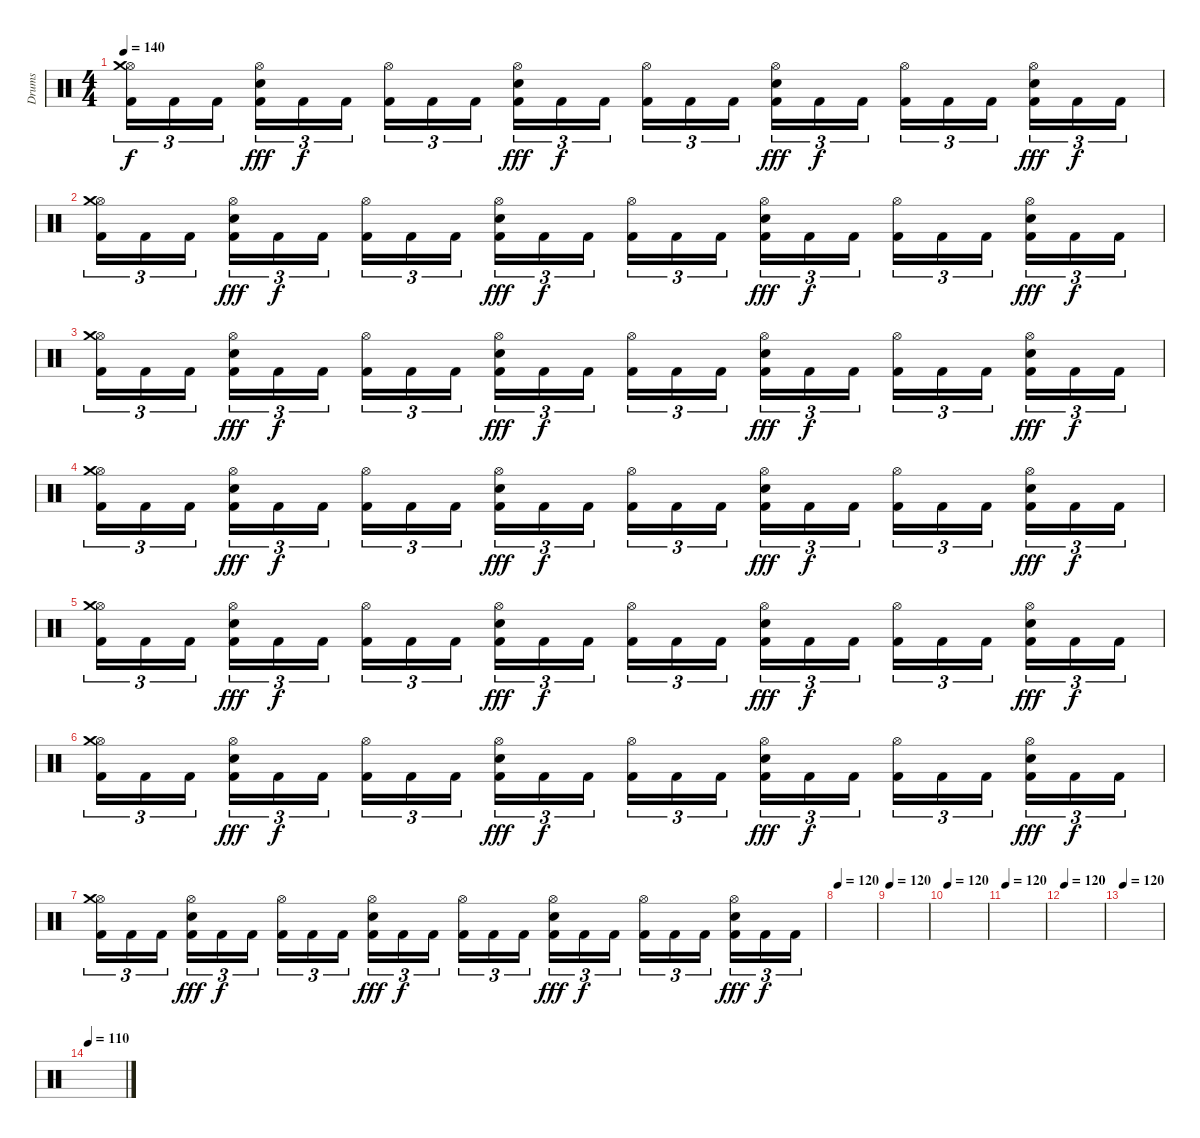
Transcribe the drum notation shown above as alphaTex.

\track ("Drums" "Drums") {instrument percussion}
\staff {score}
\articulation defaults
\ts (4 4)
\tempo 140
\clef neutral
\ks c
("Hi-Hat (open)" "Crash medium (hit)" "Kick (hit) 2").16{tu (3 2) dy f} "Kick (hit) 2".16{tu (3 2)} "Kick (hit) 2".16{tu (3 2)} ("Hi-Hat (open)" "Snare (hit) 2" "Kick (hit) 2").16{tu (3 2) dy fff} "Kick (hit) 2".16{tu (3 2) dy f} "Kick (hit) 2".16{tu (3 2)} ("Hi-Hat (open)" "Kick (hit) 2").16{tu (3 2)} "Kick (hit) 2".16{tu (3 2)} "Kick (hit) 2".16{tu (3 2)} ("Hi-Hat (open)" "Snare (hit) 2" "Kick (hit) 2").16{tu (3 2) dy fff} "Kick (hit) 2".16{tu (3 2) dy f} "Kick (hit) 2".16{tu (3 2)} ("Hi-Hat (open)" "Kick (hit) 2").16{tu (3 2)} "Kick (hit) 2".16{tu (3 2)} "Kick (hit) 2".16{tu (3 2)} ("Hi-Hat (open)" "Snare (hit) 2" "Kick (hit) 2").16{tu (3 2) dy fff} "Kick (hit) 2".16{tu (3 2) dy f} "Kick (hit) 2".16{tu (3 2)} ("Hi-Hat (open)" "Kick (hit) 2").16{tu (3 2)} "Kick (hit) 2".16{tu (3 2)} "Kick (hit) 2".16{tu (3 2)} ("Hi-Hat (open)" "Snare (hit) 2" "Kick (hit) 2").16{tu (3 2) dy fff} "Kick (hit) 2".16{tu (3 2) dy f} "Kick (hit) 2".16{tu (3 2)} |
("Hi-Hat (open)" "Crash medium (hit)" "Kick (hit) 2").16{tu (3 2) volume 5} "Kick (hit) 2".16{tu (3 2)} "Kick (hit) 2".16{tu (3 2)} ("Hi-Hat (open)" "Snare (hit) 2" "Kick (hit) 2").16{tu (3 2) dy fff} "Kick (hit) 2".16{tu (3 2) dy f} "Kick (hit) 2".16{tu (3 2)} ("Hi-Hat (open)" "Kick (hit) 2").16{tu (3 2)} "Kick (hit) 2".16{tu (3 2)} "Kick (hit) 2".16{tu (3 2)} ("Hi-Hat (open)" "Snare (hit) 2" "Kick (hit) 2").16{tu (3 2) dy fff} "Kick (hit) 2".16{tu (3 2) dy f} "Kick (hit) 2".16{tu (3 2)} ("Hi-Hat (open)" "Kick (hit) 2").16{tu (3 2)} "Kick (hit) 2".16{tu (3 2)} "Kick (hit) 2".16{tu (3 2)} ("Hi-Hat (open)" "Snare (hit) 2" "Kick (hit) 2").16{tu (3 2) dy fff} "Kick (hit) 2".16{tu (3 2) dy f} "Kick (hit) 2".16{tu (3 2)} ("Hi-Hat (open)" "Kick (hit) 2").16{tu (3 2)} "Kick (hit) 2".16{tu (3 2)} "Kick (hit) 2".16{tu (3 2)} ("Hi-Hat (open)" "Snare (hit) 2" "Kick (hit) 2").16{tu (3 2) dy fff} "Kick (hit) 2".16{tu (3 2) dy f} "Kick (hit) 2".16{tu (3 2)} |
("Hi-Hat (open)" "Crash medium (hit)" "Kick (hit) 2").16{tu (3 2)} "Kick (hit) 2".16{tu (3 2)} "Kick (hit) 2".16{tu (3 2)} ("Hi-Hat (open)" "Snare (hit) 2" "Kick (hit) 2").16{tu (3 2) dy fff} "Kick (hit) 2".16{tu (3 2) dy f} "Kick (hit) 2".16{tu (3 2)} ("Hi-Hat (open)" "Kick (hit) 2").16{tu (3 2)} "Kick (hit) 2".16{tu (3 2)} "Kick (hit) 2".16{tu (3 2)} ("Hi-Hat (open)" "Snare (hit) 2" "Kick (hit) 2").16{tu (3 2) dy fff} "Kick (hit) 2".16{tu (3 2) dy f} "Kick (hit) 2".16{tu (3 2)} ("Hi-Hat (open)" "Kick (hit) 2").16{tu (3 2)} "Kick (hit) 2".16{tu (3 2)} "Kick (hit) 2".16{tu (3 2)} ("Hi-Hat (open)" "Snare (hit) 2" "Kick (hit) 2").16{tu (3 2) dy fff} "Kick (hit) 2".16{tu (3 2) dy f} "Kick (hit) 2".16{tu (3 2)} ("Hi-Hat (open)" "Kick (hit) 2").16{tu (3 2)} "Kick (hit) 2".16{tu (3 2)} "Kick (hit) 2".16{tu (3 2)} ("Hi-Hat (open)" "Snare (hit) 2" "Kick (hit) 2").16{tu (3 2) dy fff} "Kick (hit) 2".16{tu (3 2) dy f} "Kick (hit) 2".16{tu (3 2)} |
("Hi-Hat (open)" "Crash medium (hit)" "Kick (hit) 2").16{tu (3 2) volume 3} "Kick (hit) 2".16{tu (3 2)} "Kick (hit) 2".16{tu (3 2)} ("Hi-Hat (open)" "Snare (hit) 2" "Kick (hit) 2").16{tu (3 2) dy fff} "Kick (hit) 2".16{tu (3 2) dy f} "Kick (hit) 2".16{tu (3 2)} ("Hi-Hat (open)" "Kick (hit) 2").16{tu (3 2)} "Kick (hit) 2".16{tu (3 2)} "Kick (hit) 2".16{tu (3 2)} ("Hi-Hat (open)" "Snare (hit) 2" "Kick (hit) 2").16{tu (3 2) dy fff} "Kick (hit) 2".16{tu (3 2) dy f} "Kick (hit) 2".16{tu (3 2)} ("Hi-Hat (open)" "Kick (hit) 2").16{tu (3 2)} "Kick (hit) 2".16{tu (3 2)} "Kick (hit) 2".16{tu (3 2)} ("Hi-Hat (open)" "Snare (hit) 2" "Kick (hit) 2").16{tu (3 2) dy fff} "Kick (hit) 2".16{tu (3 2) dy f} "Kick (hit) 2".16{tu (3 2)} ("Hi-Hat (open)" "Kick (hit) 2").16{tu (3 2)} "Kick (hit) 2".16{tu (3 2)} "Kick (hit) 2".16{tu (3 2)} ("Hi-Hat (open)" "Snare (hit) 2" "Kick (hit) 2").16{tu (3 2) dy fff} "Kick (hit) 2".16{tu (3 2) dy f} "Kick (hit) 2".16{tu (3 2)} |
("Hi-Hat (open)" "Crash medium (hit)" "Kick (hit) 2").16{tu (3 2)} "Kick (hit) 2".16{tu (3 2)} "Kick (hit) 2".16{tu (3 2)} ("Hi-Hat (open)" "Snare (hit) 2" "Kick (hit) 2").16{tu (3 2) dy fff} "Kick (hit) 2".16{tu (3 2) dy f} "Kick (hit) 2".16{tu (3 2)} ("Hi-Hat (open)" "Kick (hit) 2").16{tu (3 2)} "Kick (hit) 2".16{tu (3 2)} "Kick (hit) 2".16{tu (3 2)} ("Hi-Hat (open)" "Snare (hit) 2" "Kick (hit) 2").16{tu (3 2) dy fff} "Kick (hit) 2".16{tu (3 2) dy f} "Kick (hit) 2".16{tu (3 2)} ("Hi-Hat (open)" "Kick (hit) 2").16{tu (3 2)} "Kick (hit) 2".16{tu (3 2)} "Kick (hit) 2".16{tu (3 2)} ("Hi-Hat (open)" "Snare (hit) 2" "Kick (hit) 2").16{tu (3 2) dy fff} "Kick (hit) 2".16{tu (3 2) dy f} "Kick (hit) 2".16{tu (3 2)} ("Hi-Hat (open)" "Kick (hit) 2").16{tu (3 2)} "Kick (hit) 2".16{tu (3 2)} "Kick (hit) 2".16{tu (3 2)} ("Hi-Hat (open)" "Snare (hit) 2" "Kick (hit) 2").16{tu (3 2) dy fff} "Kick (hit) 2".16{tu (3 2) dy f} "Kick (hit) 2".16{tu (3 2)} |
("Hi-Hat (open)" "Crash medium (hit)" "Kick (hit) 2").16{tu (3 2) volume 0} "Kick (hit) 2".16{tu (3 2)} "Kick (hit) 2".16{tu (3 2)} ("Hi-Hat (open)" "Snare (hit) 2" "Kick (hit) 2").16{tu (3 2) dy fff} "Kick (hit) 2".16{tu (3 2) dy f} "Kick (hit) 2".16{tu (3 2)} ("Hi-Hat (open)" "Kick (hit) 2").16{tu (3 2)} "Kick (hit) 2".16{tu (3 2)} "Kick (hit) 2".16{tu (3 2)} ("Hi-Hat (open)" "Snare (hit) 2" "Kick (hit) 2").16{tu (3 2) dy fff} "Kick (hit) 2".16{tu (3 2) dy f} "Kick (hit) 2".16{tu (3 2)} ("Hi-Hat (open)" "Kick (hit) 2").16{tu (3 2)} "Kick (hit) 2".16{tu (3 2)} "Kick (hit) 2".16{tu (3 2)} ("Hi-Hat (open)" "Snare (hit) 2" "Kick (hit) 2").16{tu (3 2) dy fff} "Kick (hit) 2".16{tu (3 2) dy f} "Kick (hit) 2".16{tu (3 2)} ("Hi-Hat (open)" "Kick (hit) 2").16{tu (3 2)} "Kick (hit) 2".16{tu (3 2)} "Kick (hit) 2".16{tu (3 2)} ("Hi-Hat (open)" "Snare (hit) 2" "Kick (hit) 2").16{tu (3 2) dy fff} "Kick (hit) 2".16{tu (3 2) dy f} "Kick (hit) 2".16{tu (3 2)} |
("Hi-Hat (open)" "Crash medium (hit)" "Kick (hit) 2").16{tu (3 2)} "Kick (hit) 2".16{tu (3 2)} "Kick (hit) 2".16{tu (3 2)} ("Hi-Hat (open)" "Snare (hit) 2" "Kick (hit) 2").16{tu (3 2) dy fff} "Kick (hit) 2".16{tu (3 2) dy f} "Kick (hit) 2".16{tu (3 2)} ("Hi-Hat (open)" "Kick (hit) 2").16{tu (3 2)} "Kick (hit) 2".16{tu (3 2)} "Kick (hit) 2".16{tu (3 2)} ("Hi-Hat (open)" "Snare (hit) 2" "Kick (hit) 2").16{tu (3 2) dy fff} "Kick (hit) 2".16{tu (3 2) dy f} "Kick (hit) 2".16{tu (3 2)} ("Hi-Hat (open)" "Kick (hit) 2").16{tu (3 2)} "Kick (hit) 2".16{tu (3 2)} "Kick (hit) 2".16{tu (3 2)} ("Hi-Hat (open)" "Snare (hit) 2" "Kick (hit) 2").16{tu (3 2) dy fff} "Kick (hit) 2".16{tu (3 2) dy f} "Kick (hit) 2".16{tu (3 2)} ("Hi-Hat (open)" "Kick (hit) 2").16{tu (3 2)} "Kick (hit) 2".16{tu (3 2)} "Kick (hit) 2".16{tu (3 2)} ("Hi-Hat (open)" "Snare (hit) 2" "Kick (hit) 2").16{tu (3 2) dy fff} "Kick (hit) 2".16{tu (3 2) dy f} "Kick (hit) 2".16{tu (3 2)} |
\tempo 120
|
\tempo 120
|
\tempo 120
|
\tempo 120
|
\tempo 120
|
\tempo 120
|
\tempo 110
